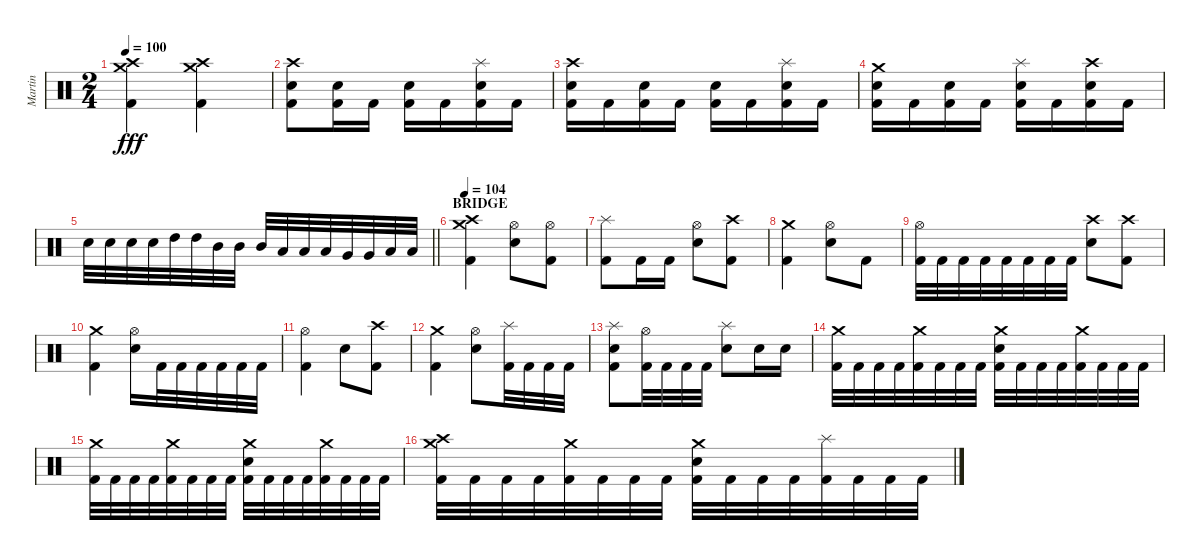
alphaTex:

\track ("Martin" "Martin") {instrument percussion}
\staff {score}
\articulation defaults
\ts (2 4)
\tempo 100
\clef neutral
\ks c
("Crash high (hit)" "Crash medium (hit)" "Kick (hit) 2").4{dy fff} ("Crash medium (hit)" "Crash high (hit)" "Kick (hit) 2").4 |
("Crash high (hit)" "Electric Snare (hit)" "Kick (hit) 2").8 ("Electric Snare (hit)" "Kick (hit) 2").16 "Kick (hit) 2".16 ("Electric Snare (hit)" "Kick (hit) 2").16 "Kick (hit) 2".16 ("Splash (hit)" "Electric Snare (hit)" "Kick (hit) 2").16 "Kick (hit) 2".16 |
("Crash high (hit)" "Electric Snare (hit)" "Kick (hit) 2").16 "Kick (hit) 2".16 ("Electric Snare (hit)" "Kick (hit) 2").16 "Kick (hit) 2".16 ("Electric Snare (hit)" "Kick (hit) 2").16 "Kick (hit) 2".16 ("Splash (hit)" "Electric Snare (hit)" "Kick (hit) 2").16 "Kick (hit) 2".16 |
("Crash medium (hit)" "Electric Snare (hit)" "Kick (hit) 2").16 "Kick (hit) 2".16 ("Electric Snare (hit)" "Kick (hit) 2").16 "Kick (hit) 2".16 ("Splash (hit)" "Electric Snare (hit)" "Kick (hit) 2").16 "Kick (hit) 2".16 ("Crash high (hit)" "Electric Snare (hit)" "Kick (hit) 2").16 "Kick (hit) 2".16 |
\barLineRight lightlight "Electric Snare (hit)".32 "Electric Snare (hit)".32 "Electric Snare (hit)".32 "Electric Snare (hit)".32 "High Tom (hit)".32 "High Tom (hit)".32 "Mid Tom (hit)".32 "Mid Tom (hit)".32 "Mid Tom (hit)".32 "Low Tom (hit)".32 "Low Tom (hit)".32 "Low Tom (hit)".32 "Very Low Tom (hit)".32 "Very Low Tom (hit)".32 "Low Floor Tom (hit)".32 "Low Floor Tom (hit)".32
|
\section ("" "BRIDGE")
\tempo 104
("Crash high (hit)" "Crash medium (hit)" "Kick (hit) 2").4 ("Hi-Hat (open)" "Electric Snare (hit)").8 ("Hi-Hat (open)" "Kick (hit) 2").8 |
("Splash (hit)" "Kick (hit) 2").8 "Kick (hit) 2".16 "Kick (hit) 2".16 ("Hi-Hat (open)" "Electric Snare (hit)").8 ("Crash high (hit)" "Kick (hit) 2").8 |
("Crash medium (hit)" "Kick (hit) 2").4 ("Hi-Hat (open)" "Electric Snare (hit)").8 "Kick (hit) 2".8 |
("Hi-Hat (open)" "Kick (hit) 2").32 "Kick (hit) 2".32 "Kick (hit) 2".32 "Kick (hit) 2".32 "Kick (hit) 2".32 "Kick (hit) 2".32 "Kick (hit) 2".32 "Kick (hit) 2".32 ("Crash high (hit)" "Electric Snare (hit)").8 ("Crash high (hit)" "Kick (hit) 2").8 |
("Crash medium (hit)" "Kick (hit) 2").4 ("Hi-Hat (open)" "Electric Snare (hit)").16 "Kick (hit) 2".32 "Kick (hit) 2".32 "Kick (hit) 2".32 "Kick (hit) 2".32 "Kick (hit) 2".32 "Kick (hit) 2".32 |
("Hi-Hat (open)" "Kick (hit) 2").4 "Electric Snare (hit)".8 ("Crash high (hit)" "Kick (hit) 2").8 |
("Crash medium (hit)" "Kick (hit) 2").4 ("Hi-Hat (open)" "Electric Snare (hit)").8 ("Splash (hit)" "Kick (hit) 2").32 "Kick (hit) 2".32 "Kick (hit) 2".32 "Kick (hit) 2".32 |
("Splash (hit)" "Electric Snare (hit)" "Kick (hit) 2").8 ("Hi-Hat (open)" "Kick (hit) 2").32 "Kick (hit) 2".32 "Kick (hit) 2".32 "Kick (hit) 2".32 ("Splash (hit)" "Electric Snare (hit)").8 "Electric Snare (hit)".16 "Electric Snare (hit)".16 |
("Crash medium (hit)" "Kick (hit) 2").32 "Kick (hit) 2".32 "Kick (hit) 2".32 "Kick (hit) 2".32 ("Crash medium (hit)" "Kick (hit) 2").32 "Kick (hit) 2".32 "Kick (hit) 2".32 "Kick (hit) 2".32 ("Crash medium (hit)" "Electric Snare (hit)" "Kick (hit) 2").32 "Kick (hit) 2".32 "Kick (hit) 2".32 "Kick (hit) 2".32 ("Crash medium (hit)" "Kick (hit) 2").32 "Kick (hit) 2".32 "Kick (hit) 2".32 "Kick (hit) 2".32 |
("Crash medium (hit)" "Kick (hit) 2").32 "Kick (hit) 2".32 "Kick (hit) 2".32 "Kick (hit) 2".32 ("Crash medium (hit)" "Kick (hit) 2").32 "Kick (hit) 2".32 "Kick (hit) 2".32 "Kick (hit) 2".32 ("Crash medium (hit)" "Electric Snare (hit)" "Kick (hit) 2").32 "Kick (hit) 2".32 "Kick (hit) 2".32 "Kick (hit) 2".32 ("Crash medium (hit)" "Kick (hit) 2").32 "Kick (hit) 2".32 "Kick (hit) 2".32 "Kick (hit) 2".32 |
("Crash medium (hit)" "Crash high (hit)" "Kick (hit) 2").32 "Kick (hit) 2".32 "Kick (hit) 2".32 "Kick (hit) 2".32 ("Crash medium (hit)" "Kick (hit) 2").32 "Kick (hit) 2".32 "Kick (hit) 2".32 "Kick (hit) 2".32 ("Crash medium (hit)" "Electric Snare (hit)" "Kick (hit) 2").32 "Kick (hit) 2".32 "Kick (hit) 2".32 "Kick (hit) 2".32 ("Splash (hit)" "Kick (hit) 2").32 "Kick (hit) 2".32 "Kick (hit) 2".32 "Kick (hit) 2".32
